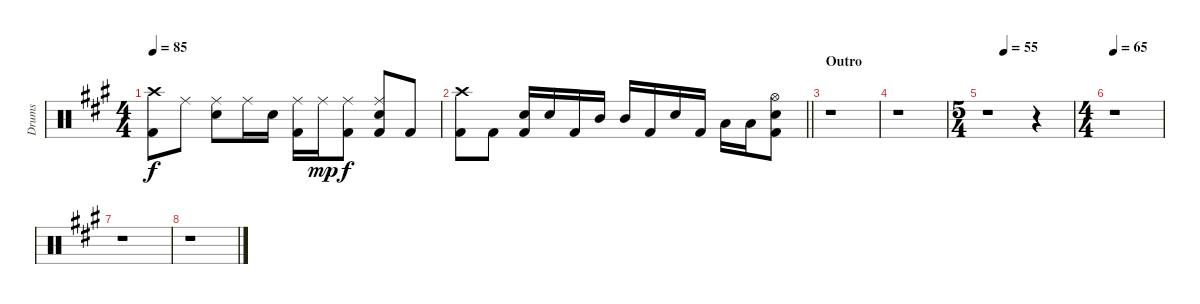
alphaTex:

\track ("Drums" "Drums") {instrument percussion}
\staff {score}
\articulation defaults
\ts (4 4)
\tempo 85
\clef neutral
\ks a
("Crash high (hit)" "Kick (hit) 2").8{dy f} "Ride (middle)".8 ("Ride (middle)" "Electric Snare (hit)").8 "Ride (middle)".16 "Electric Snare (hit)".16 ("Ride (middle)" "Kick (hit) 2").16 "Ride (middle)".16{dy mp} ("Ride (middle)" "Kick (hit) 2").8{dy f} ("Ride (middle)" "Electric Snare (hit)" "Kick (hit) 2").8 "Kick (hit) 2".8 |
\barLineRight lightlight
("Crash high (hit)" "Kick (hit) 2").8 "Kick (hit) 2".8 ("Electric Snare (hit)" "Kick (hit) 2").16 "Electric Snare (hit)".16 "Kick (hit) 2".16 "Mid Tom (hit)".16 "Mid Tom (hit)".16 "Kick (hit) 2".16 "Electric Snare (hit)".16 "Kick (hit) 2".16 "Low Tom (hit)".16 "Low Tom (hit)".16 ("Hi-Hat (open)" "Electric Snare (hit)" "Kick (hit) 2").8 |
\section ("" "Outro")
r.1 |
r.1 |
\ts (5 4)
\tempo (55 0.2)
r.1 r.4 |
\ts (4 4)
\tempo 65
r.1 |
r.1 |
r.1
